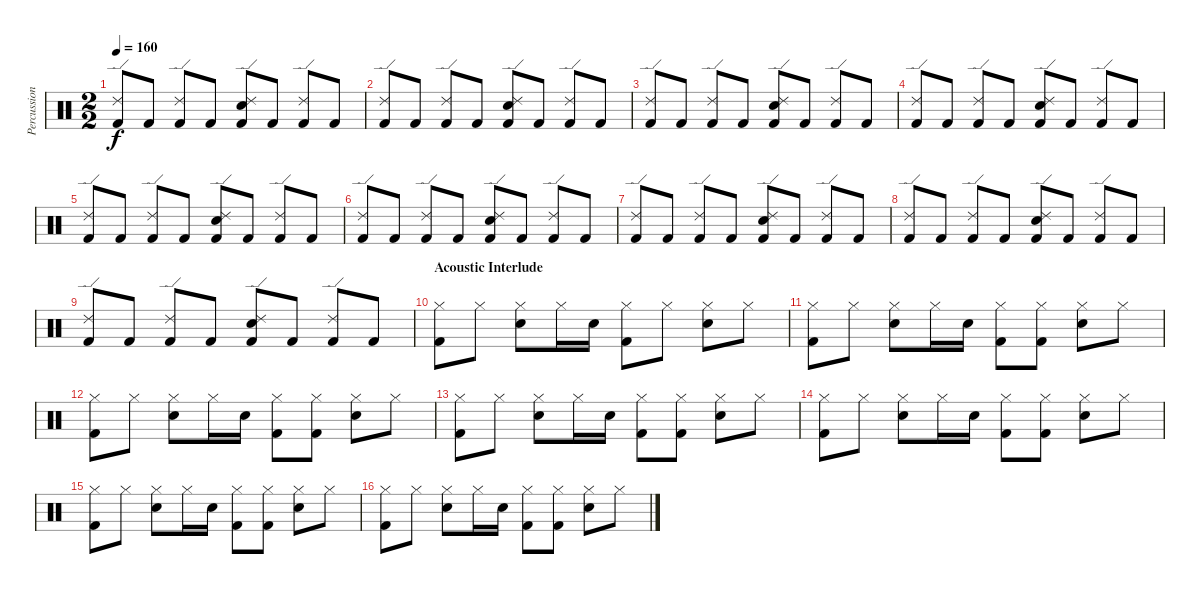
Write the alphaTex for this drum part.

\track ("Percussion" "Percussion") {instrument percussion}
\staff {score}
\articulation defaults
\ts (2 2)
\tempo 160
\clef neutral
\ks c
("Ride (edge) 2" "Kick (hit) 2").8{dy f} "Kick (hit) 2".8 ("Ride (edge) 2" "Kick (hit) 2").8 "Kick (hit) 2".8 ("Ride (edge) 2" "Snare (hit) 2" "Kick (hit) 2").8 "Kick (hit) 2".8 ("Ride (edge) 2" "Kick (hit) 2").8 "Kick (hit) 2".8 |
("Ride (edge) 2" "Kick (hit) 2").8 "Kick (hit) 2".8 ("Ride (edge) 2" "Kick (hit) 2").8 "Kick (hit) 2".8 ("Ride (edge) 2" "Snare (hit) 2" "Kick (hit) 2").8 "Kick (hit) 2".8 ("Ride (edge) 2" "Kick (hit) 2").8 "Kick (hit) 2".8 |
("Ride (edge) 2" "Kick (hit) 2").8 "Kick (hit) 2".8 ("Ride (edge) 2" "Kick (hit) 2").8 "Kick (hit) 2".8 ("Ride (edge) 2" "Snare (hit) 2" "Kick (hit) 2").8 "Kick (hit) 2".8 ("Ride (edge) 2" "Kick (hit) 2").8 "Kick (hit) 2".8 |
("Ride (edge) 2" "Kick (hit) 2").8 "Kick (hit) 2".8 ("Ride (edge) 2" "Kick (hit) 2").8 "Kick (hit) 2".8 ("Ride (edge) 2" "Snare (hit) 2" "Kick (hit) 2").8 "Kick (hit) 2".8 ("Ride (edge) 2" "Kick (hit) 2").8 "Kick (hit) 2".8 |
("Ride (edge) 2" "Kick (hit) 2").8 "Kick (hit) 2".8 ("Ride (edge) 2" "Kick (hit) 2").8 "Kick (hit) 2".8 ("Ride (edge) 2" "Snare (hit) 2" "Kick (hit) 2").8 "Kick (hit) 2".8 ("Ride (edge) 2" "Kick (hit) 2").8 "Kick (hit) 2".8 |
("Ride (edge) 2" "Kick (hit) 2").8 "Kick (hit) 2".8 ("Ride (edge) 2" "Kick (hit) 2").8 "Kick (hit) 2".8 ("Ride (edge) 2" "Snare (hit) 2" "Kick (hit) 2").8 "Kick (hit) 2".8 ("Ride (edge) 2" "Kick (hit) 2").8 "Kick (hit) 2".8 |
("Ride (edge) 2" "Kick (hit) 2").8 "Kick (hit) 2".8 ("Ride (edge) 2" "Kick (hit) 2").8 "Kick (hit) 2".8 ("Ride (edge) 2" "Snare (hit) 2" "Kick (hit) 2").8 "Kick (hit) 2".8 ("Ride (edge) 2" "Kick (hit) 2").8 "Kick (hit) 2".8 |
("Ride (edge) 2" "Kick (hit) 2").8 "Kick (hit) 2".8 ("Ride (edge) 2" "Kick (hit) 2").8 "Kick (hit) 2".8 ("Ride (edge) 2" "Snare (hit) 2" "Kick (hit) 2").8 "Kick (hit) 2".8 ("Ride (edge) 2" "Kick (hit) 2").8 "Kick (hit) 2".8 |
("Ride (edge) 2" "Kick (hit) 2").8 "Kick (hit) 2".8 ("Ride (edge) 2" "Kick (hit) 2").8 "Kick (hit) 2".8 ("Ride (edge) 2" "Snare (hit) 2" "Kick (hit) 2").8 "Kick (hit) 2".8 ("Ride (edge) 2" "Kick (hit) 2").8 "Kick (hit) 2".8 |
\section ("" "Acoustic Interlude")
("Hi-Hat (closed)" "Kick (hit) 2").8 "Hi-Hat (closed)".8 ("Hi-Hat (closed)" "Snare (hit) 2").8 "Hi-Hat (closed)".16 "Snare (hit) 2".16 ("Hi-Hat (closed)" "Kick (hit) 2").8 "Hi-Hat (closed)".8 ("Hi-Hat (closed)" "Snare (hit) 2").8 "Hi-Hat (closed)".8 |
("Hi-Hat (closed)" "Kick (hit) 2").8 "Hi-Hat (closed)".8 ("Hi-Hat (closed)" "Snare (hit) 2").8 "Hi-Hat (closed)".16 "Snare (hit) 2".16 ("Hi-Hat (closed)" "Kick (hit) 2").8 ("Hi-Hat (closed)" "Kick (hit) 2").8 ("Hi-Hat (closed)" "Snare (hit) 2").8 "Hi-Hat (closed)".8 |
("Hi-Hat (closed)" "Kick (hit) 2").8 "Hi-Hat (closed)".8 ("Hi-Hat (closed)" "Snare (hit) 2").8 "Hi-Hat (closed)".16 "Snare (hit) 2".16 ("Hi-Hat (closed)" "Kick (hit) 2").8 ("Hi-Hat (closed)" "Kick (hit) 2").8 ("Hi-Hat (closed)" "Snare (hit) 2").8 "Hi-Hat (closed)".8 |
("Hi-Hat (closed)" "Kick (hit) 2").8 "Hi-Hat (closed)".8 ("Hi-Hat (closed)" "Snare (hit) 2").8 "Hi-Hat (closed)".16 "Snare (hit) 2".16 ("Hi-Hat (closed)" "Kick (hit) 2").8 ("Hi-Hat (closed)" "Kick (hit) 2").8 ("Hi-Hat (closed)" "Snare (hit) 2").8 "Hi-Hat (closed)".8 |
("Hi-Hat (closed)" "Kick (hit) 2").8 "Hi-Hat (closed)".8 ("Hi-Hat (closed)" "Snare (hit) 2").8 "Hi-Hat (closed)".16 "Snare (hit) 2".16 ("Hi-Hat (closed)" "Kick (hit) 2").8 ("Hi-Hat (closed)" "Kick (hit) 2").8 ("Hi-Hat (closed)" "Snare (hit) 2").8 "Hi-Hat (closed)".8 |
("Hi-Hat (closed)" "Kick (hit) 2").8 "Hi-Hat (closed)".8 ("Hi-Hat (closed)" "Snare (hit) 2").8 "Hi-Hat (closed)".16 "Snare (hit) 2".16 ("Hi-Hat (closed)" "Kick (hit) 2").8 ("Hi-Hat (closed)" "Kick (hit) 2").8 ("Hi-Hat (closed)" "Snare (hit) 2").8 "Hi-Hat (closed)".8 |
("Hi-Hat (closed)" "Kick (hit) 2").8 "Hi-Hat (closed)".8 ("Hi-Hat (closed)" "Snare (hit) 2").8 "Hi-Hat (closed)".16 "Snare (hit) 2".16 ("Hi-Hat (closed)" "Kick (hit) 2").8 ("Hi-Hat (closed)" "Kick (hit) 2").8 ("Hi-Hat (closed)" "Snare (hit) 2").8 "Hi-Hat (closed)".8
